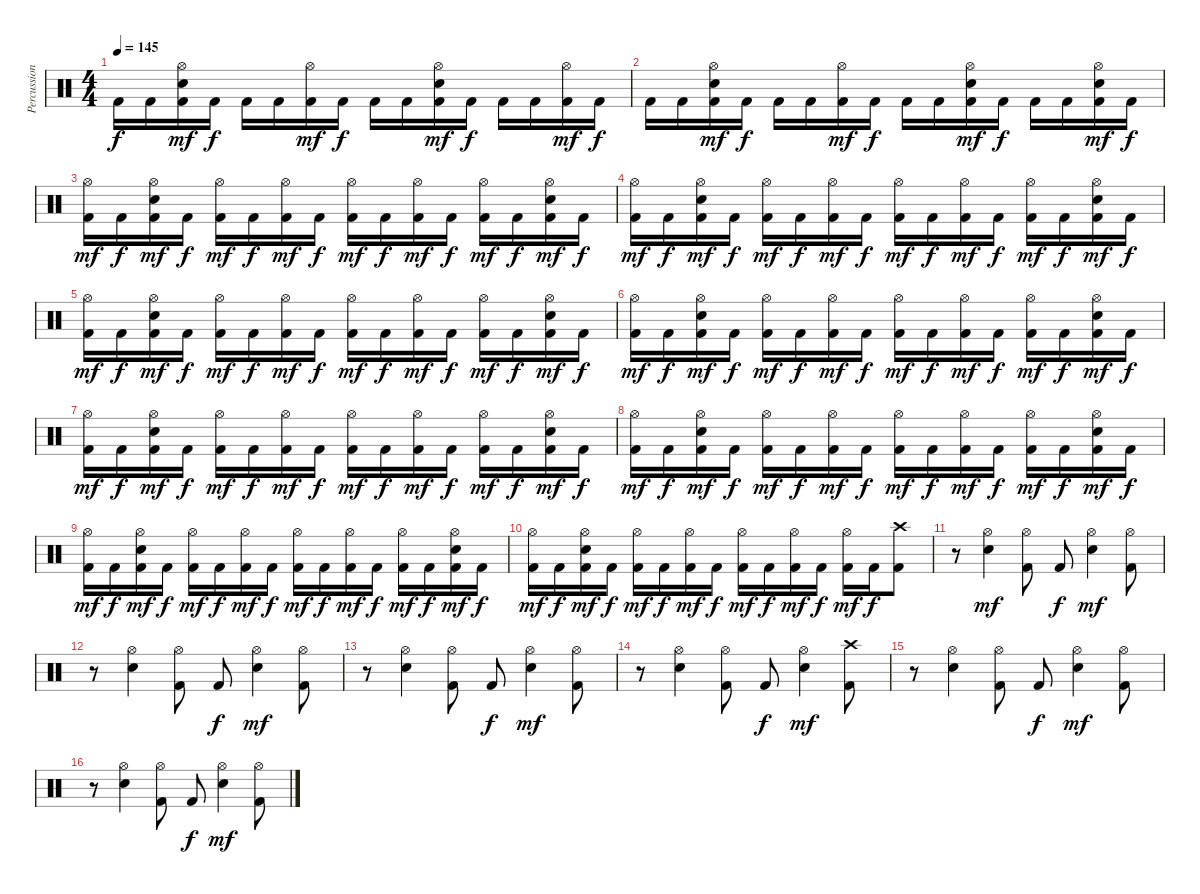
\track ("Percussioni" "Percussion") {instrument percussion}
\staff {score}
\articulation defaults
\ts (4 4)
\tempo 145
\clef neutral
\ks c "Kick (hit) 2".16{dy f} "Kick (hit) 2".16
("Kick (hit) 2" "Snare (hit) 2" "Hi-Hat (open)").16{dy mf} "Kick (hit) 2".16{dy f} "Kick (hit) 2".16 "Kick (hit) 2".16 ("Kick (hit) 2" "Hi-Hat (open)").16{dy mf} "Kick (hit) 2".16{dy f} "Kick (hit) 2".16 "Kick (hit) 2".16 ("Kick (hit) 2" "Snare (hit) 2" "Hi-Hat (open)").16{dy mf} "Kick (hit) 2".16{dy f} "Kick (hit) 2".16 "Kick (hit) 2".16 ("Kick (hit) 2" "Hi-Hat (open)").16{dy mf} "Kick (hit) 2".16{dy f} |
"Kick (hit) 2".16 "Kick (hit) 2".16 ("Kick (hit) 2" "Snare (hit) 2" "Hi-Hat (open)").16{dy mf} "Kick (hit) 2".16{dy f} "Kick (hit) 2".16 "Kick (hit) 2".16 ("Kick (hit) 2" "Hi-Hat (open)").16{dy mf} "Kick (hit) 2".16{dy f} "Kick (hit) 2".16 "Kick (hit) 2".16 ("Kick (hit) 2" "Snare (hit) 2" "Hi-Hat (open)").16{dy mf} "Kick (hit) 2".16{dy f} "Kick (hit) 2".16 "Kick (hit) 2".16 ("Kick (hit) 2" "Snare (hit) 2" "Hi-Hat (open)").16{dy mf} "Kick (hit) 2".16{dy f} |
("Kick (hit) 2" "Hi-Hat (open)").16{dy mf} "Kick (hit) 2".16{dy f} ("Kick (hit) 2" "Snare (hit) 2" "Hi-Hat (open)").16{dy mf} "Kick (hit) 2".16{dy f} ("Kick (hit) 2" "Hi-Hat (open)").16{dy mf} "Kick (hit) 2".16{dy f} ("Kick (hit) 2" "Hi-Hat (open)").16{dy mf} "Kick (hit) 2".16{dy f} ("Kick (hit) 2" "Hi-Hat (open)").16{dy mf} "Kick (hit) 2".16{dy f} ("Kick (hit) 2" "Hi-Hat (open)").16{dy mf} "Kick (hit) 2".16{dy f} ("Kick (hit) 2" "Hi-Hat (open)").16{dy mf} "Kick (hit) 2".16{dy f} ("Kick (hit) 2" "Snare (hit) 2" "Hi-Hat (open)").16{dy mf} "Kick (hit) 2".16{dy f} |
("Kick (hit) 2" "Hi-Hat (open)").16{dy mf} "Kick (hit) 2".16{dy f} ("Kick (hit) 2" "Snare (hit) 2" "Hi-Hat (open)").16{dy mf} "Kick (hit) 2".16{dy f} ("Kick (hit) 2" "Hi-Hat (open)").16{dy mf} "Kick (hit) 2".16{dy f} ("Kick (hit) 2" "Hi-Hat (open)").16{dy mf} "Kick (hit) 2".16{dy f} ("Kick (hit) 2" "Hi-Hat (open)").16{dy mf} "Kick (hit) 2".16{dy f} ("Kick (hit) 2" "Hi-Hat (open)").16{dy mf} "Kick (hit) 2".16{dy f} ("Kick (hit) 2" "Hi-Hat (open)").16{dy mf} "Kick (hit) 2".16{dy f} ("Kick (hit) 2" "Snare (hit) 2" "Hi-Hat (open)").16{dy mf} "Kick (hit) 2".16{dy f} |
("Kick (hit) 2" "Hi-Hat (open)").16{dy mf} "Kick (hit) 2".16{dy f} ("Kick (hit) 2" "Snare (hit) 2" "Hi-Hat (open)").16{dy mf} "Kick (hit) 2".16{dy f} ("Kick (hit) 2" "Hi-Hat (open)").16{dy mf} "Kick (hit) 2".16{dy f} ("Kick (hit) 2" "Hi-Hat (open)").16{dy mf} "Kick (hit) 2".16{dy f} ("Kick (hit) 2" "Hi-Hat (open)").16{dy mf} "Kick (hit) 2".16{dy f} ("Kick (hit) 2" "Hi-Hat (open)").16{dy mf} "Kick (hit) 2".16{dy f} ("Kick (hit) 2" "Hi-Hat (open)").16{dy mf} "Kick (hit) 2".16{dy f} ("Kick (hit) 2" "Snare (hit) 2" "Hi-Hat (open)").16{dy mf} "Kick (hit) 2".16{dy f} |
("Kick (hit) 2" "Hi-Hat (open)").16{dy mf} "Kick (hit) 2".16{dy f} ("Kick (hit) 2" "Snare (hit) 2" "Hi-Hat (open)").16{dy mf} "Kick (hit) 2".16{dy f} ("Kick (hit) 2" "Hi-Hat (open)").16{dy mf} "Kick (hit) 2".16{dy f} ("Kick (hit) 2" "Hi-Hat (open)").16{dy mf} "Kick (hit) 2".16{dy f} ("Kick (hit) 2" "Hi-Hat (open)").16{dy mf} "Kick (hit) 2".16{dy f} ("Kick (hit) 2" "Hi-Hat (open)").16{dy mf} "Kick (hit) 2".16{dy f} ("Kick (hit) 2" "Hi-Hat (open)").16{dy mf} "Kick (hit) 2".16{dy f} ("Kick (hit) 2" "Snare (hit) 2" "Hi-Hat (open)").16{dy mf} "Kick (hit) 2".16{dy f} |
("Kick (hit) 2" "Hi-Hat (open)").16{dy mf} "Kick (hit) 2".16{dy f} ("Kick (hit) 2" "Snare (hit) 2" "Hi-Hat (open)").16{dy mf} "Kick (hit) 2".16{dy f} ("Kick (hit) 2" "Hi-Hat (open)").16{dy mf} "Kick (hit) 2".16{dy f} ("Kick (hit) 2" "Hi-Hat (open)").16{dy mf} "Kick (hit) 2".16{dy f} ("Kick (hit) 2" "Hi-Hat (open)").16{dy mf} "Kick (hit) 2".16{dy f} ("Kick (hit) 2" "Hi-Hat (open)").16{dy mf} "Kick (hit) 2".16{dy f} ("Kick (hit) 2" "Hi-Hat (open)").16{dy mf} "Kick (hit) 2".16{dy f} ("Kick (hit) 2" "Snare (hit) 2" "Hi-Hat (open)").16{dy mf} "Kick (hit) 2".16{dy f} |
("Kick (hit) 2" "Hi-Hat (open)").16{dy mf} "Kick (hit) 2".16{dy f} ("Kick (hit) 2" "Snare (hit) 2" "Hi-Hat (open)").16{dy mf} "Kick (hit) 2".16{dy f} ("Kick (hit) 2" "Hi-Hat (open)").16{dy mf} "Kick (hit) 2".16{dy f} ("Kick (hit) 2" "Hi-Hat (open)").16{dy mf} "Kick (hit) 2".16{dy f} ("Kick (hit) 2" "Hi-Hat (open)").16{dy mf} "Kick (hit) 2".16{dy f} ("Kick (hit) 2" "Hi-Hat (open)").16{dy mf} "Kick (hit) 2".16{dy f} ("Kick (hit) 2" "Hi-Hat (open)").16{dy mf} "Kick (hit) 2".16{dy f} ("Kick (hit) 2" "Snare (hit) 2" "Hi-Hat (open)").16{dy mf} "Kick (hit) 2".16{dy f} |
("Kick (hit) 2" "Hi-Hat (open)").16{dy mf} "Kick (hit) 2".16{dy f} ("Kick (hit) 2" "Snare (hit) 2" "Hi-Hat (open)").16{dy mf} "Kick (hit) 2".16{dy f} ("Kick (hit) 2" "Hi-Hat (open)").16{dy mf} "Kick (hit) 2".16{dy f} ("Kick (hit) 2" "Hi-Hat (open)").16{dy mf} "Kick (hit) 2".16{dy f} ("Kick (hit) 2" "Hi-Hat (open)").16{dy mf} "Kick (hit) 2".16{dy f} ("Kick (hit) 2" "Hi-Hat (open)").16{dy mf} "Kick (hit) 2".16{dy f} ("Kick (hit) 2" "Hi-Hat (open)").16{dy mf} "Kick (hit) 2".16{dy f} ("Kick (hit) 2" "Snare (hit) 2" "Hi-Hat (open)").16{dy mf} "Kick (hit) 2".16{dy f} |
("Kick (hit) 2" "Hi-Hat (open)").16{dy mf} "Kick (hit) 2".16{dy f} ("Kick (hit) 2" "Snare (hit) 2" "Hi-Hat (open)").16{dy mf} "Kick (hit) 2".16{dy f} ("Kick (hit) 2" "Hi-Hat (open)").16{dy mf} "Kick (hit) 2".16{dy f} ("Kick (hit) 2" "Hi-Hat (open)").16{dy mf} "Kick (hit) 2".16{dy f} ("Kick (hit) 2" "Hi-Hat (open)").16{dy mf} "Kick (hit) 2".16{dy f} ("Kick (hit) 2" "Hi-Hat (open)").16{dy mf} "Kick (hit) 2".16{dy f} ("Kick (hit) 2" "Hi-Hat (open)").16{dy mf} "Kick (hit) 2".16{dy f} ("Kick (hit) 2" "Crash high (hit)").8 |
r.8 ("Snare (hit) 2" "Hi-Hat (open)").4{dy mf} ("Kick (hit) 2" "Hi-Hat (open)").8 "Kick (hit) 2".8{dy f} ("Snare (hit) 2" "Hi-Hat (open)").4{dy mf} ("Kick (hit) 2" "Hi-Hat (open)").8 |
r.8 ("Snare (hit) 2" "Hi-Hat (open)").4 ("Kick (hit) 2" "Hi-Hat (open)").8 "Kick (hit) 2".8{dy f} ("Snare (hit) 2" "Hi-Hat (open)").4{dy mf} ("Kick (hit) 2" "Hi-Hat (open)").8 |
r.8 ("Snare (hit) 2" "Hi-Hat (open)").4 ("Kick (hit) 2" "Hi-Hat (open)").8 "Kick (hit) 2".8{dy f} ("Snare (hit) 2" "Hi-Hat (open)").4{dy mf} ("Kick (hit) 2" "Hi-Hat (open)").8 |
r.8 ("Snare (hit) 2" "Hi-Hat (open)").4 ("Kick (hit) 2" "Hi-Hat (open)").8 "Kick (hit) 2".8{dy f} ("Snare (hit) 2" "Hi-Hat (open)").4{dy mf} ("Kick (hit) 2" "Crash high (hit)").8 |
r.8 ("Snare (hit) 2" "Hi-Hat (open)").4 ("Kick (hit) 2" "Hi-Hat (open)").8 "Kick (hit) 2".8{dy f} ("Snare (hit) 2" "Hi-Hat (open)").4{dy mf} ("Kick (hit) 2" "Hi-Hat (open)").8 |
r.8 ("Snare (hit) 2" "Hi-Hat (open)").4 ("Kick (hit) 2" "Hi-Hat (open)").8 "Kick (hit) 2".8{dy f} ("Snare (hit) 2" "Hi-Hat (open)").4{dy mf} ("Kick (hit) 2" "Hi-Hat (open)").8
